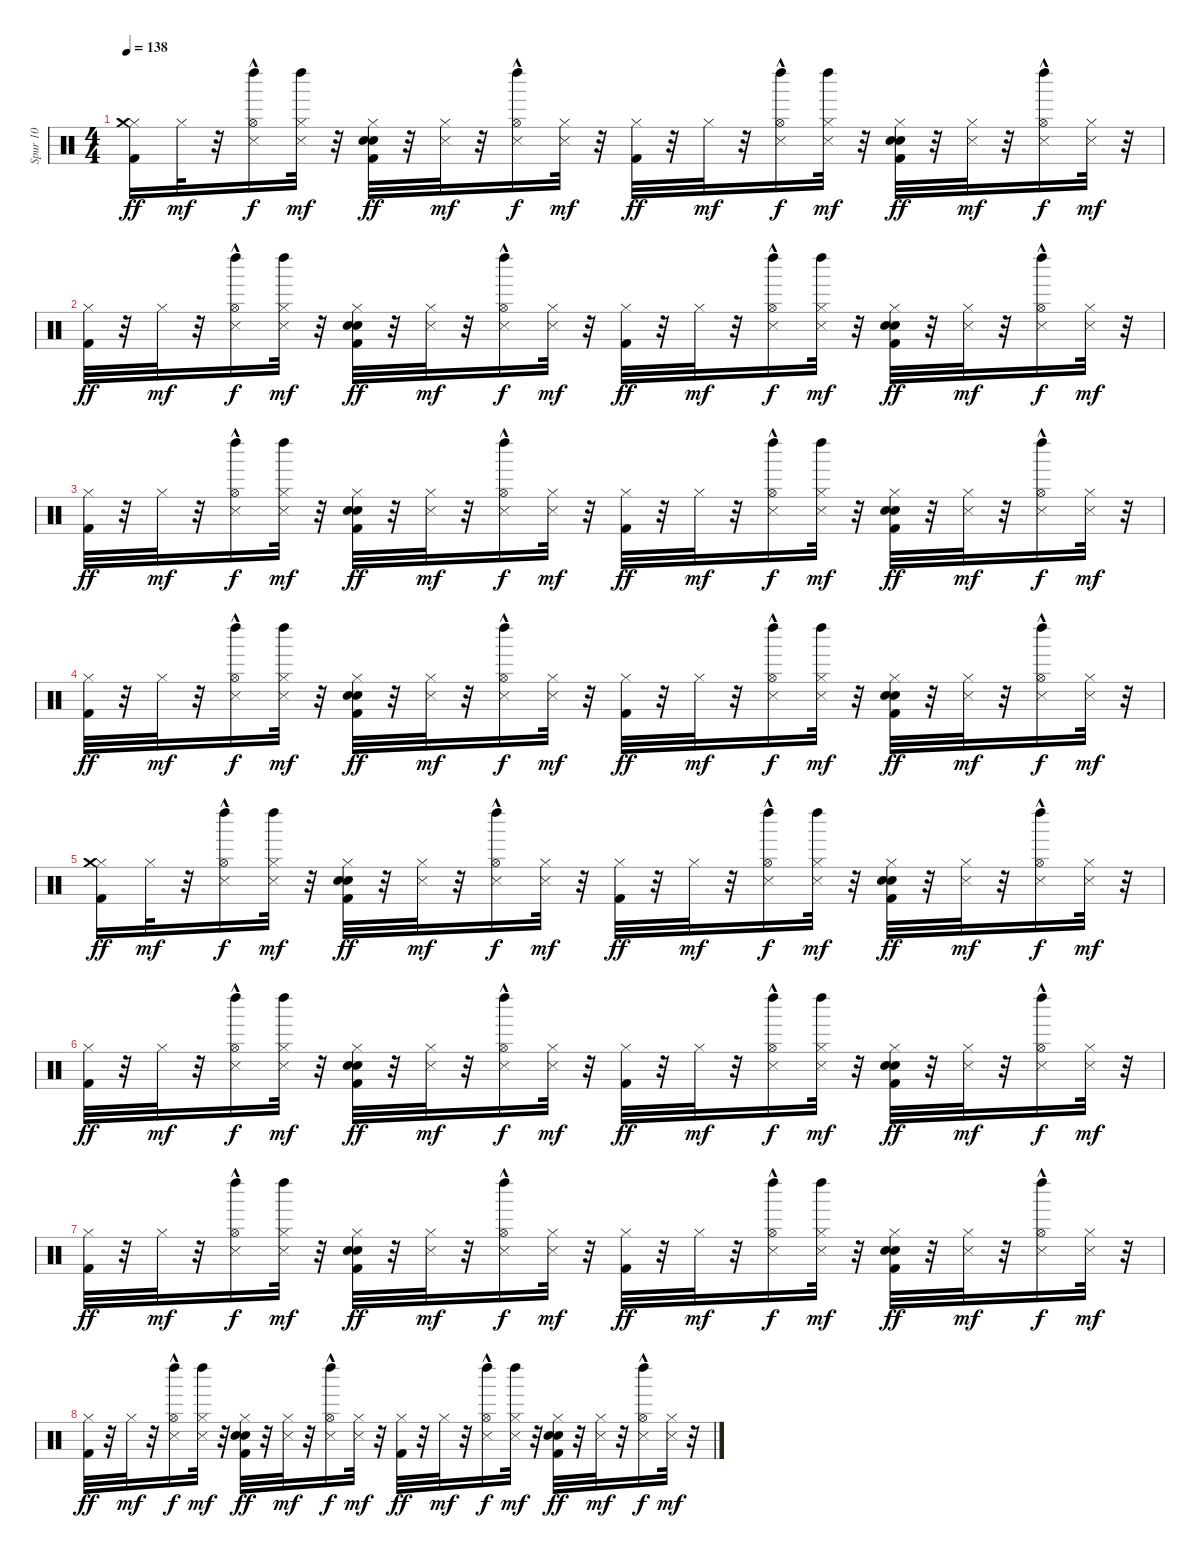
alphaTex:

\track ("Spur 10" "Spur 10") {instrument percussion}
\staff {score}
\articulation defaults
\ts (4 4)
\tempo 138
\clef neutral
\ks c
("Hi-Hat (closed)" "Crash medium (hit)" "Kick (hit) 2").16{dy ff} "Hi-Hat (closed)".32{dy mf} r.32 ("Snare (side stick) 3" "Hi-Hat (open)"{hac} "Left Maraca (hit)").16{dy f} ("Hi-Hat (closed)" "Snare (side stick) 3" "Left Maraca (hit)").32{dy mf} r.32 ("Hand Clap (hit)" "Hi-Hat (closed)" "Kick (hit) 2" "Electric Snare (hit)").32{dy ff} r.32 ("Hi-Hat (closed)" "Snare (side stick) 3").32{dy mf} r.32 ("Snare (side stick) 3" "Hi-Hat (open)"{hac} "Left Maraca (hit)").16{dy f} ("Hi-Hat (closed)" "Snare (side stick) 3").32{dy mf} r.32 ("Hi-Hat (closed)" "Kick (hit) 2").32{dy ff} r.32 "Hi-Hat (closed)".32{dy mf} r.32 ("Snare (side stick) 3" "Hi-Hat (open)"{hac} "Left Maraca (hit)").16{dy f} ("Hi-Hat (closed)" "Snare (side stick) 3" "Left Maraca (hit)").32{dy mf} r.32 ("Hand Clap (hit)" "Hi-Hat (closed)" "Kick (hit) 2" "Electric Snare (hit)").32{dy ff} r.32 ("Hi-Hat (closed)" "Snare (side stick) 3").32{dy mf} r.32 ("Snare (side stick) 3" "Hi-Hat (open)"{hac} "Left Maraca (hit)").16{dy f} ("Hi-Hat (closed)" "Snare (side stick) 3").32{dy mf} r.32 |
("Hi-Hat (closed)" "Kick (hit) 2").32{dy ff} r.32 "Hi-Hat (closed)".32{dy mf} r.32 ("Snare (side stick) 3" "Hi-Hat (open)"{hac} "Left Maraca (hit)").16{dy f} ("Hi-Hat (closed)" "Snare (side stick) 3" "Left Maraca (hit)").32{dy mf} r.32 ("Hand Clap (hit)" "Hi-Hat (closed)" "Kick (hit) 2" "Electric Snare (hit)").32{dy ff} r.32 ("Hi-Hat (closed)" "Snare (side stick) 3").32{dy mf} r.32 ("Snare (side stick) 3" "Hi-Hat (open)"{hac} "Left Maraca (hit)").16{dy f} ("Hi-Hat (closed)" "Snare (side stick) 3").32{dy mf} r.32 ("Hi-Hat (closed)" "Kick (hit) 2").32{dy ff} r.32 "Hi-Hat (closed)".32{dy mf} r.32 ("Snare (side stick) 3" "Hi-Hat (open)"{hac} "Left Maraca (hit)").16{dy f} ("Hi-Hat (closed)" "Snare (side stick) 3" "Left Maraca (hit)").32{dy mf} r.32 ("Hand Clap (hit)" "Hi-Hat (closed)" "Kick (hit) 2" "Electric Snare (hit)").32{dy ff} r.32 ("Hi-Hat (closed)" "Snare (side stick) 3").32{dy mf} r.32 ("Snare (side stick) 3" "Hi-Hat (open)"{hac} "Left Maraca (hit)").16{dy f} ("Hi-Hat (closed)" "Snare (side stick) 3").32{dy mf} r.32 |
("Hi-Hat (closed)" "Kick (hit) 2").32{dy ff} r.32 "Hi-Hat (closed)".32{dy mf} r.32 ("Snare (side stick) 3" "Hi-Hat (open)"{hac} "Left Maraca (hit)").16{dy f} ("Hi-Hat (closed)" "Snare (side stick) 3" "Left Maraca (hit)").32{dy mf} r.32 ("Hand Clap (hit)" "Hi-Hat (closed)" "Kick (hit) 2" "Electric Snare (hit)").32{dy ff} r.32 ("Hi-Hat (closed)" "Snare (side stick) 3").32{dy mf} r.32 ("Snare (side stick) 3" "Hi-Hat (open)"{hac} "Left Maraca (hit)").16{dy f} ("Hi-Hat (closed)" "Snare (side stick) 3").32{dy mf} r.32 ("Hi-Hat (closed)" "Kick (hit) 2").32{dy ff} r.32 "Hi-Hat (closed)".32{dy mf} r.32 ("Snare (side stick) 3" "Hi-Hat (open)"{hac} "Left Maraca (hit)").16{dy f} ("Hi-Hat (closed)" "Snare (side stick) 3" "Left Maraca (hit)").32{dy mf} r.32 ("Hand Clap (hit)" "Hi-Hat (closed)" "Kick (hit) 2" "Electric Snare (hit)").32{dy ff} r.32 ("Hi-Hat (closed)" "Snare (side stick) 3").32{dy mf} r.32 ("Snare (side stick) 3" "Hi-Hat (open)"{hac} "Left Maraca (hit)").16{dy f} ("Hi-Hat (closed)" "Snare (side stick) 3").32{dy mf} r.32 |
("Hi-Hat (closed)" "Kick (hit) 2").32{dy ff} r.32 "Hi-Hat (closed)".32{dy mf} r.32 ("Snare (side stick) 3" "Hi-Hat (open)"{hac} "Left Maraca (hit)").16{dy f} ("Hi-Hat (closed)" "Snare (side stick) 3" "Left Maraca (hit)").32{dy mf} r.32 ("Hand Clap (hit)" "Hi-Hat (closed)" "Kick (hit) 2" "Electric Snare (hit)").32{dy ff} r.32 ("Hi-Hat (closed)" "Snare (side stick) 3").32{dy mf} r.32 ("Snare (side stick) 3" "Hi-Hat (open)"{hac} "Left Maraca (hit)").16{dy f} ("Hi-Hat (closed)" "Snare (side stick) 3").32{dy mf} r.32 ("Hi-Hat (closed)" "Kick (hit) 2").32{dy ff} r.32 "Hi-Hat (closed)".32{dy mf} r.32 ("Snare (side stick) 3" "Hi-Hat (open)"{hac} "Left Maraca (hit)").16{dy f} ("Hi-Hat (closed)" "Snare (side stick) 3" "Left Maraca (hit)").32{dy mf} r.32 ("Hand Clap (hit)" "Hi-Hat (closed)" "Kick (hit) 2" "Electric Snare (hit)").32{dy ff} r.32 ("Hi-Hat (closed)" "Snare (side stick) 3").32{dy mf} r.32 ("Snare (side stick) 3" "Hi-Hat (open)"{hac} "Left Maraca (hit)").16{dy f} ("Hi-Hat (closed)" "Snare (side stick) 3").32{dy mf} r.32 |
("Hi-Hat (closed)" "Crash medium (hit)" "Kick (hit) 2").16{dy ff} "Hi-Hat (closed)".32{dy mf} r.32 ("Snare (side stick) 3" "Hi-Hat (open)"{hac} "Left Maraca (hit)").16{dy f} ("Hi-Hat (closed)" "Snare (side stick) 3" "Left Maraca (hit)").32{dy mf} r.32 ("Hand Clap (hit)" "Hi-Hat (closed)" "Kick (hit) 2" "Electric Snare (hit)").32{dy ff} r.32 ("Hi-Hat (closed)" "Snare (side stick) 3").32{dy mf} r.32 ("Snare (side stick) 3" "Hi-Hat (open)"{hac} "Left Maraca (hit)").16{dy f} ("Hi-Hat (closed)" "Snare (side stick) 3").32{dy mf} r.32 ("Hi-Hat (closed)" "Kick (hit) 2").32{dy ff} r.32 "Hi-Hat (closed)".32{dy mf} r.32 ("Snare (side stick) 3" "Hi-Hat (open)"{hac} "Left Maraca (hit)").16{dy f} ("Hi-Hat (closed)" "Snare (side stick) 3" "Left Maraca (hit)").32{dy mf} r.32 ("Hand Clap (hit)" "Hi-Hat (closed)" "Kick (hit) 2" "Electric Snare (hit)").32{dy ff} r.32 ("Hi-Hat (closed)" "Snare (side stick) 3").32{dy mf} r.32 ("Snare (side stick) 3" "Hi-Hat (open)"{hac} "Left Maraca (hit)").16{dy f} ("Hi-Hat (closed)" "Snare (side stick) 3").32{dy mf} r.32 |
("Hi-Hat (closed)" "Kick (hit) 2").32{dy ff} r.32 "Hi-Hat (closed)".32{dy mf} r.32 ("Snare (side stick) 3" "Hi-Hat (open)"{hac} "Left Maraca (hit)").16{dy f} ("Hi-Hat (closed)" "Snare (side stick) 3" "Left Maraca (hit)").32{dy mf} r.32 ("Hand Clap (hit)" "Hi-Hat (closed)" "Kick (hit) 2" "Electric Snare (hit)").32{dy ff} r.32 ("Hi-Hat (closed)" "Snare (side stick) 3").32{dy mf} r.32 ("Snare (side stick) 3" "Hi-Hat (open)"{hac} "Left Maraca (hit)").16{dy f} ("Hi-Hat (closed)" "Snare (side stick) 3").32{dy mf} r.32 ("Hi-Hat (closed)" "Kick (hit) 2").32{dy ff} r.32 "Hi-Hat (closed)".32{dy mf} r.32 ("Snare (side stick) 3" "Hi-Hat (open)"{hac} "Left Maraca (hit)").16{dy f} ("Hi-Hat (closed)" "Snare (side stick) 3" "Left Maraca (hit)").32{dy mf} r.32 ("Hand Clap (hit)" "Hi-Hat (closed)" "Kick (hit) 2" "Electric Snare (hit)").32{dy ff} r.32 ("Hi-Hat (closed)" "Snare (side stick) 3").32{dy mf} r.32 ("Snare (side stick) 3" "Hi-Hat (open)"{hac} "Left Maraca (hit)").16{dy f} ("Hi-Hat (closed)" "Snare (side stick) 3").32{dy mf} r.32 |
("Hi-Hat (closed)" "Kick (hit) 2").32{dy ff} r.32 "Hi-Hat (closed)".32{dy mf} r.32 ("Snare (side stick) 3" "Hi-Hat (open)"{hac} "Left Maraca (hit)").16{dy f} ("Hi-Hat (closed)" "Snare (side stick) 3" "Left Maraca (hit)").32{dy mf} r.32 ("Hand Clap (hit)" "Hi-Hat (closed)" "Kick (hit) 2" "Electric Snare (hit)").32{dy ff} r.32 ("Hi-Hat (closed)" "Snare (side stick) 3").32{dy mf} r.32 ("Snare (side stick) 3" "Hi-Hat (open)"{hac} "Left Maraca (hit)").16{dy f} ("Hi-Hat (closed)" "Snare (side stick) 3").32{dy mf} r.32 ("Hi-Hat (closed)" "Kick (hit) 2").32{dy ff} r.32 "Hi-Hat (closed)".32{dy mf} r.32 ("Snare (side stick) 3" "Hi-Hat (open)"{hac} "Left Maraca (hit)").16{dy f} ("Hi-Hat (closed)" "Snare (side stick) 3" "Left Maraca (hit)").32{dy mf} r.32 ("Hand Clap (hit)" "Hi-Hat (closed)" "Kick (hit) 2" "Electric Snare (hit)").32{dy ff} r.32 ("Hi-Hat (closed)" "Snare (side stick) 3").32{dy mf} r.32 ("Snare (side stick) 3" "Hi-Hat (open)"{hac} "Left Maraca (hit)").16{dy f} ("Hi-Hat (closed)" "Snare (side stick) 3").32{dy mf} r.32 |
("Hi-Hat (closed)" "Kick (hit) 2").32{dy ff} r.32 "Hi-Hat (closed)".32{dy mf} r.32 ("Snare (side stick) 3" "Hi-Hat (open)"{hac} "Left Maraca (hit)").16{dy f} ("Hi-Hat (closed)" "Snare (side stick) 3" "Left Maraca (hit)").32{dy mf} r.32 ("Hand Clap (hit)" "Hi-Hat (closed)" "Kick (hit) 2" "Electric Snare (hit)").32{dy ff} r.32 ("Hi-Hat (closed)" "Snare (side stick) 3").32{dy mf} r.32 ("Snare (side stick) 3" "Hi-Hat (open)"{hac} "Left Maraca (hit)").16{dy f} ("Hi-Hat (closed)" "Snare (side stick) 3").32{dy mf} r.32 ("Hi-Hat (closed)" "Kick (hit) 2").32{dy ff} r.32 "Hi-Hat (closed)".32{dy mf} r.32 ("Snare (side stick) 3" "Hi-Hat (open)"{hac} "Left Maraca (hit)").16{dy f} ("Hi-Hat (closed)" "Snare (side stick) 3" "Left Maraca (hit)").32{dy mf} r.32 ("Hand Clap (hit)" "Hi-Hat (closed)" "Kick (hit) 2" "Electric Snare (hit)").32{dy ff} r.32 ("Hi-Hat (closed)" "Snare (side stick) 3").32{dy mf} r.32 ("Snare (side stick) 3" "Hi-Hat (open)"{hac} "Left Maraca (hit)").16{dy f} ("Hi-Hat (closed)" "Snare (side stick) 3").32{dy mf} r.32
